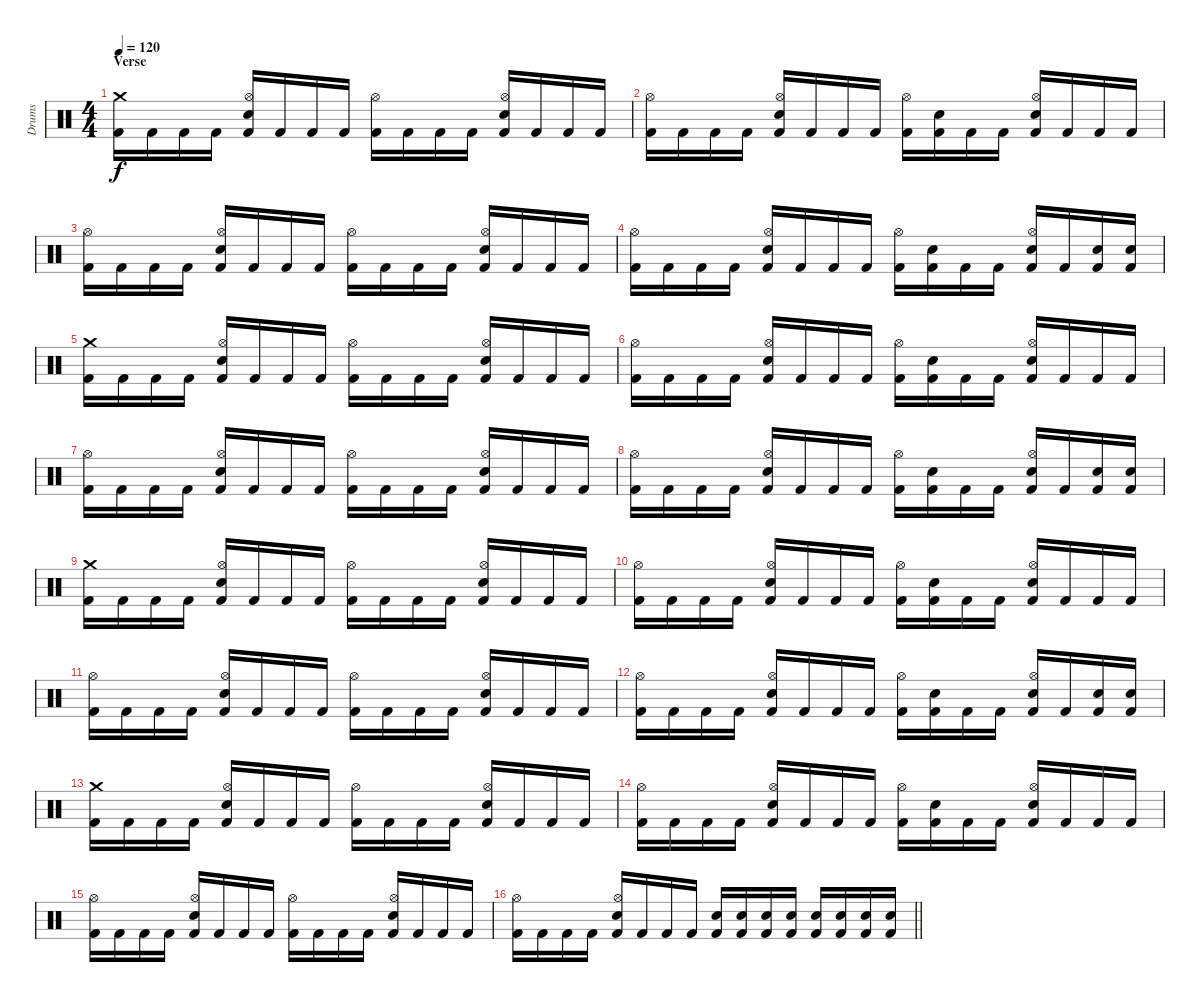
\track ("Drums" "Drums") {instrument percussion}
\staff {score}
\articulation defaults
\ts (4 4)
\section ("" "Verse")
\tempo 120
\clef neutral
\ks c
("Crash medium (hit)" "Kick (hit) 2").16{dy f} "Kick (hit) 2".16 "Kick (hit) 2".16 "Kick (hit) 2".16 ("Hi-Hat (open)" "Electric Snare (hit)" "Kick (hit) 2").16 "Kick (hit) 2".16 "Kick (hit) 2".16 "Kick (hit) 2".16 ("Hi-Hat (open)" "Kick (hit) 2").16 "Kick (hit) 2".16 "Kick (hit) 2".16 "Kick (hit) 2".16 ("Hi-Hat (open)" "Electric Snare (hit)" "Kick (hit) 2").16 "Kick (hit) 2".16 "Kick (hit) 2".16 "Kick (hit) 2".16 |
("Hi-Hat (open)" "Kick (hit) 2").16 "Kick (hit) 2".16 "Kick (hit) 2".16 "Kick (hit) 2".16 ("Hi-Hat (open)" "Electric Snare (hit)" "Kick (hit) 2").16 "Kick (hit) 2".16 "Kick (hit) 2".16 "Kick (hit) 2".16 ("Hi-Hat (open)" "Kick (hit) 2").16 ("Electric Snare (hit)" "Kick (hit) 2").16 "Kick (hit) 2".16 "Kick (hit) 2".16 ("Hi-Hat (open)" "Electric Snare (hit)" "Kick (hit) 2").16 "Kick (hit) 2".16 "Kick (hit) 2".16 "Kick (hit) 2".16 |
("Hi-Hat (open)" "Kick (hit) 2").16 "Kick (hit) 2".16 "Kick (hit) 2".16 "Kick (hit) 2".16 ("Hi-Hat (open)" "Electric Snare (hit)" "Kick (hit) 2").16 "Kick (hit) 2".16 "Kick (hit) 2".16 "Kick (hit) 2".16 ("Hi-Hat (open)" "Kick (hit) 2").16 "Kick (hit) 2".16 "Kick (hit) 2".16 "Kick (hit) 2".16 ("Hi-Hat (open)" "Electric Snare (hit)" "Kick (hit) 2").16 "Kick (hit) 2".16 "Kick (hit) 2".16 "Kick (hit) 2".16 |
("Hi-Hat (open)" "Kick (hit) 2").16 "Kick (hit) 2".16 "Kick (hit) 2".16 "Kick (hit) 2".16 ("Hi-Hat (open)" "Electric Snare (hit)" "Kick (hit) 2").16 "Kick (hit) 2".16 "Kick (hit) 2".16 "Kick (hit) 2".16 ("Hi-Hat (open)" "Kick (hit) 2").16 ("Electric Snare (hit)" "Kick (hit) 2").16 "Kick (hit) 2".16 "Kick (hit) 2".16 ("Hi-Hat (open)" "Electric Snare (hit)" "Kick (hit) 2").16 "Kick (hit) 2".16 ("Electric Snare (hit)" "Kick (hit) 2").16 ("Electric Snare (hit)" "Kick (hit) 2").16 |
("Crash medium (hit)" "Kick (hit) 2").16 "Kick (hit) 2".16 "Kick (hit) 2".16 "Kick (hit) 2".16 ("Hi-Hat (open)" "Electric Snare (hit)" "Kick (hit) 2").16 "Kick (hit) 2".16 "Kick (hit) 2".16 "Kick (hit) 2".16 ("Hi-Hat (open)" "Kick (hit) 2").16 "Kick (hit) 2".16 "Kick (hit) 2".16 "Kick (hit) 2".16 ("Hi-Hat (open)" "Electric Snare (hit)" "Kick (hit) 2").16 "Kick (hit) 2".16 "Kick (hit) 2".16 "Kick (hit) 2".16 |
("Hi-Hat (open)" "Kick (hit) 2").16 "Kick (hit) 2".16 "Kick (hit) 2".16 "Kick (hit) 2".16 ("Hi-Hat (open)" "Electric Snare (hit)" "Kick (hit) 2").16 "Kick (hit) 2".16 "Kick (hit) 2".16 "Kick (hit) 2".16 ("Hi-Hat (open)" "Kick (hit) 2").16 ("Electric Snare (hit)" "Kick (hit) 2").16 "Kick (hit) 2".16 "Kick (hit) 2".16 ("Hi-Hat (open)" "Electric Snare (hit)" "Kick (hit) 2").16 "Kick (hit) 2".16 "Kick (hit) 2".16 "Kick (hit) 2".16 |
("Hi-Hat (open)" "Kick (hit) 2").16 "Kick (hit) 2".16 "Kick (hit) 2".16 "Kick (hit) 2".16 ("Hi-Hat (open)" "Electric Snare (hit)" "Kick (hit) 2").16 "Kick (hit) 2".16 "Kick (hit) 2".16 "Kick (hit) 2".16 ("Hi-Hat (open)" "Kick (hit) 2").16 "Kick (hit) 2".16 "Kick (hit) 2".16 "Kick (hit) 2".16 ("Hi-Hat (open)" "Electric Snare (hit)" "Kick (hit) 2").16 "Kick (hit) 2".16 "Kick (hit) 2".16 "Kick (hit) 2".16 |
("Hi-Hat (open)" "Kick (hit) 2").16 "Kick (hit) 2".16 "Kick (hit) 2".16 "Kick (hit) 2".16 ("Hi-Hat (open)" "Electric Snare (hit)" "Kick (hit) 2").16 "Kick (hit) 2".16 "Kick (hit) 2".16 "Kick (hit) 2".16 ("Hi-Hat (open)" "Kick (hit) 2").16 ("Electric Snare (hit)" "Kick (hit) 2").16 "Kick (hit) 2".16 "Kick (hit) 2".16 ("Hi-Hat (open)" "Electric Snare (hit)" "Kick (hit) 2").16 "Kick (hit) 2".16 ("Electric Snare (hit)" "Kick (hit) 2").16 ("Electric Snare (hit)" "Kick (hit) 2").16 |
("Crash medium (hit)" "Kick (hit) 2").16 "Kick (hit) 2".16 "Kick (hit) 2".16 "Kick (hit) 2".16 ("Hi-Hat (open)" "Electric Snare (hit)" "Kick (hit) 2").16 "Kick (hit) 2".16 "Kick (hit) 2".16 "Kick (hit) 2".16 ("Hi-Hat (open)" "Kick (hit) 2").16 "Kick (hit) 2".16 "Kick (hit) 2".16 "Kick (hit) 2".16 ("Hi-Hat (open)" "Electric Snare (hit)" "Kick (hit) 2").16 "Kick (hit) 2".16 "Kick (hit) 2".16 "Kick (hit) 2".16 |
("Hi-Hat (open)" "Kick (hit) 2").16 "Kick (hit) 2".16 "Kick (hit) 2".16 "Kick (hit) 2".16 ("Hi-Hat (open)" "Electric Snare (hit)" "Kick (hit) 2").16 "Kick (hit) 2".16 "Kick (hit) 2".16 "Kick (hit) 2".16 ("Hi-Hat (open)" "Kick (hit) 2").16 ("Electric Snare (hit)" "Kick (hit) 2").16 "Kick (hit) 2".16 "Kick (hit) 2".16 ("Hi-Hat (open)" "Electric Snare (hit)" "Kick (hit) 2").16 "Kick (hit) 2".16 "Kick (hit) 2".16 "Kick (hit) 2".16 |
("Hi-Hat (open)" "Kick (hit) 2").16 "Kick (hit) 2".16 "Kick (hit) 2".16 "Kick (hit) 2".16 ("Hi-Hat (open)" "Electric Snare (hit)" "Kick (hit) 2").16 "Kick (hit) 2".16 "Kick (hit) 2".16 "Kick (hit) 2".16 ("Hi-Hat (open)" "Kick (hit) 2").16 "Kick (hit) 2".16 "Kick (hit) 2".16 "Kick (hit) 2".16 ("Hi-Hat (open)" "Electric Snare (hit)" "Kick (hit) 2").16 "Kick (hit) 2".16 "Kick (hit) 2".16 "Kick (hit) 2".16 |
("Hi-Hat (open)" "Kick (hit) 2").16 "Kick (hit) 2".16 "Kick (hit) 2".16 "Kick (hit) 2".16 ("Hi-Hat (open)" "Electric Snare (hit)" "Kick (hit) 2").16 "Kick (hit) 2".16 "Kick (hit) 2".16 "Kick (hit) 2".16 ("Hi-Hat (open)" "Kick (hit) 2").16 ("Electric Snare (hit)" "Kick (hit) 2").16 "Kick (hit) 2".16 "Kick (hit) 2".16 ("Hi-Hat (open)" "Electric Snare (hit)" "Kick (hit) 2").16 "Kick (hit) 2".16 ("Electric Snare (hit)" "Kick (hit) 2").16 ("Electric Snare (hit)" "Kick (hit) 2").16 |
("Crash medium (hit)" "Kick (hit) 2").16 "Kick (hit) 2".16 "Kick (hit) 2".16 "Kick (hit) 2".16 ("Hi-Hat (open)" "Electric Snare (hit)" "Kick (hit) 2").16 "Kick (hit) 2".16 "Kick (hit) 2".16 "Kick (hit) 2".16 ("Hi-Hat (open)" "Kick (hit) 2").16 "Kick (hit) 2".16 "Kick (hit) 2".16 "Kick (hit) 2".16 ("Hi-Hat (open)" "Electric Snare (hit)" "Kick (hit) 2").16 "Kick (hit) 2".16 "Kick (hit) 2".16 "Kick (hit) 2".16 |
("Hi-Hat (open)" "Kick (hit) 2").16 "Kick (hit) 2".16 "Kick (hit) 2".16 "Kick (hit) 2".16 ("Hi-Hat (open)" "Electric Snare (hit)" "Kick (hit) 2").16 "Kick (hit) 2".16 "Kick (hit) 2".16 "Kick (hit) 2".16 ("Hi-Hat (open)" "Kick (hit) 2").16 ("Electric Snare (hit)" "Kick (hit) 2").16 "Kick (hit) 2".16 "Kick (hit) 2".16 ("Hi-Hat (open)" "Electric Snare (hit)" "Kick (hit) 2").16 "Kick (hit) 2".16 "Kick (hit) 2".16 "Kick (hit) 2".16 |
("Hi-Hat (open)" "Kick (hit) 2").16 "Kick (hit) 2".16 "Kick (hit) 2".16 "Kick (hit) 2".16 ("Hi-Hat (open)" "Electric Snare (hit)" "Kick (hit) 2").16 "Kick (hit) 2".16 "Kick (hit) 2".16 "Kick (hit) 2".16 ("Hi-Hat (open)" "Kick (hit) 2").16 "Kick (hit) 2".16 "Kick (hit) 2".16 "Kick (hit) 2".16 ("Hi-Hat (open)" "Electric Snare (hit)" "Kick (hit) 2").16 "Kick (hit) 2".16 "Kick (hit) 2".16 "Kick (hit) 2".16 |
\barLineRight lightlight
("Hi-Hat (open)" "Kick (hit) 2").16 "Kick (hit) 2".16 "Kick (hit) 2".16 "Kick (hit) 2".16 ("Hi-Hat (open)" "Electric Snare (hit)" "Kick (hit) 2").16 "Kick (hit) 2".16 "Kick (hit) 2".16 "Kick (hit) 2".16 ("Electric Snare (hit)" "Kick (hit) 2").16 ("Electric Snare (hit)" "Kick (hit) 2").16 ("Electric Snare (hit)" "Kick (hit) 2").16 ("Electric Snare (hit)" "Kick (hit) 2").16 ("Electric Snare (hit)" "Kick (hit) 2").16 ("Electric Snare (hit)" "Kick (hit) 2").16 ("Electric Snare (hit)" "Kick (hit) 2").16 ("Electric Snare (hit)" "Kick (hit) 2").16
